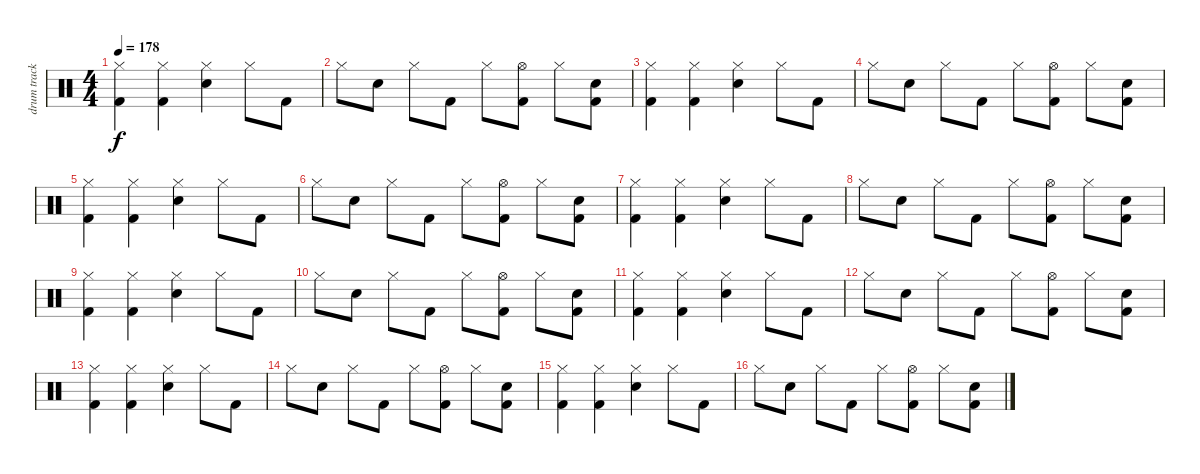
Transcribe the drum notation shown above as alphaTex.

\track ("drum track" "drum track") {instrument percussion}
\staff {score}
\articulation defaults
\ts (4 4)
\tempo 178
\clef neutral
\ks c
("Hi-Hat (closed)" "Kick (hit) 2").4{dy f} ("Hi-Hat (closed)" "Kick (hit) 2").4 ("Snare (hit) 2" "Hi-Hat (closed)").4 "Hi-Hat (closed)".8 "Kick (hit) 2".8 |
"Hi-Hat (closed)".8 "Snare (hit) 2".8 "Hi-Hat (closed)".8 "Kick (hit) 2".8 "Hi-Hat (closed)".8 ("Kick (hit) 2" "Hi-Hat (open)").8 "Hi-Hat (closed)".8 ("Kick (hit) 2" "Snare (hit) 2").8 |
("Hi-Hat (closed)" "Kick (hit) 2").4 ("Hi-Hat (closed)" "Kick (hit) 2").4 ("Snare (hit) 2" "Hi-Hat (closed)").4 "Hi-Hat (closed)".8 "Kick (hit) 2".8 |
"Hi-Hat (closed)".8 "Snare (hit) 2".8 "Hi-Hat (closed)".8 "Kick (hit) 2".8 "Hi-Hat (closed)".8 ("Kick (hit) 2" "Hi-Hat (open)").8 "Hi-Hat (closed)".8 ("Kick (hit) 2" "Snare (hit) 2").8 |
("Hi-Hat (closed)" "Kick (hit) 2").4 ("Hi-Hat (closed)" "Kick (hit) 2").4 ("Snare (hit) 2" "Hi-Hat (closed)").4 "Hi-Hat (closed)".8 "Kick (hit) 2".8 |
"Hi-Hat (closed)".8 "Snare (hit) 2".8 "Hi-Hat (closed)".8 "Kick (hit) 2".8 "Hi-Hat (closed)".8 ("Kick (hit) 2" "Hi-Hat (open)").8 "Hi-Hat (closed)".8 ("Kick (hit) 2" "Snare (hit) 2").8 |
("Hi-Hat (closed)" "Kick (hit) 2").4 ("Hi-Hat (closed)" "Kick (hit) 2").4 ("Snare (hit) 2" "Hi-Hat (closed)").4 "Hi-Hat (closed)".8 "Kick (hit) 2".8 |
"Hi-Hat (closed)".8 "Snare (hit) 2".8 "Hi-Hat (closed)".8 "Kick (hit) 2".8 "Hi-Hat (closed)".8 ("Kick (hit) 2" "Hi-Hat (open)").8 "Hi-Hat (closed)".8 ("Kick (hit) 2" "Snare (hit) 2").8 |
("Hi-Hat (closed)" "Kick (hit) 2").4 ("Hi-Hat (closed)" "Kick (hit) 2").4 ("Snare (hit) 2" "Hi-Hat (closed)").4 "Hi-Hat (closed)".8 "Kick (hit) 2".8 |
"Hi-Hat (closed)".8 "Snare (hit) 2".8 "Hi-Hat (closed)".8 "Kick (hit) 2".8 "Hi-Hat (closed)".8 ("Kick (hit) 2" "Hi-Hat (open)").8 "Hi-Hat (closed)".8 ("Kick (hit) 2" "Snare (hit) 2").8 |
("Hi-Hat (closed)" "Kick (hit) 2").4 ("Hi-Hat (closed)" "Kick (hit) 2").4 ("Snare (hit) 2" "Hi-Hat (closed)").4 "Hi-Hat (closed)".8 "Kick (hit) 2".8 |
"Hi-Hat (closed)".8 "Snare (hit) 2".8 "Hi-Hat (closed)".8 "Kick (hit) 2".8 "Hi-Hat (closed)".8 ("Kick (hit) 2" "Hi-Hat (open)").8 "Hi-Hat (closed)".8 ("Kick (hit) 2" "Snare (hit) 2").8 |
("Hi-Hat (closed)" "Kick (hit) 2").4 ("Hi-Hat (closed)" "Kick (hit) 2").4 ("Snare (hit) 2" "Hi-Hat (closed)").4 "Hi-Hat (closed)".8 "Kick (hit) 2".8 |
"Hi-Hat (closed)".8 "Snare (hit) 2".8 "Hi-Hat (closed)".8 "Kick (hit) 2".8 "Hi-Hat (closed)".8 ("Kick (hit) 2" "Hi-Hat (open)").8 "Hi-Hat (closed)".8 ("Kick (hit) 2" "Snare (hit) 2").8 |
("Hi-Hat (closed)" "Kick (hit) 2").4 ("Hi-Hat (closed)" "Kick (hit) 2").4 ("Snare (hit) 2" "Hi-Hat (closed)").4 "Hi-Hat (closed)".8 "Kick (hit) 2".8 |
"Hi-Hat (closed)".8 "Snare (hit) 2".8 "Hi-Hat (closed)".8 "Kick (hit) 2".8 "Hi-Hat (closed)".8 ("Kick (hit) 2" "Hi-Hat (open)").8 "Hi-Hat (closed)".8 ("Kick (hit) 2" "Snare (hit) 2").8
